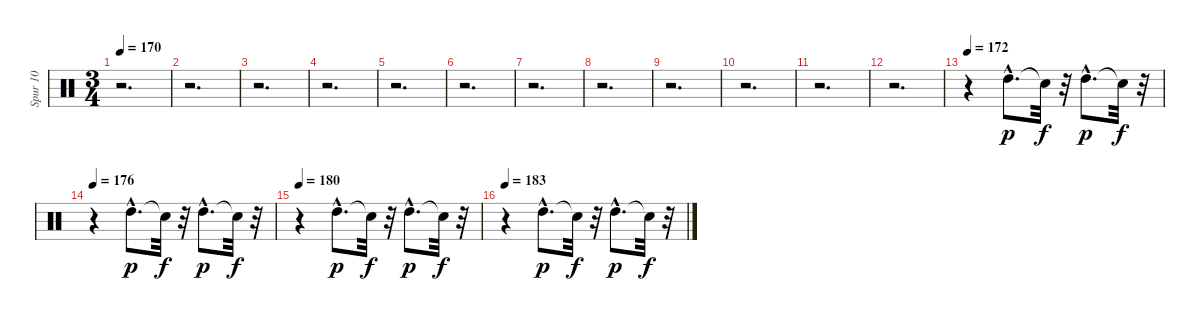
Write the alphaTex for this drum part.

\track ("Spur 10" "Spur 10") {instrument percussion}
\staff {score}
\articulation defaults
\ts (3 4)
\tempo 170
\clef neutral
\ks c
r.2{d dy f} |
r.2{d} |
r.2{d} |
r.2{d} |
r.2{d} |
r.2{d} |
r.2{d} |
r.2{d} |
r.2{d} |
r.2{d} |
r.2{d} |
r.2{d} |
\tempo 172
r.4 "High Tom (hit)"{hac}.8{d dy p} "Snare (hit)"{t}.32{dy f} r.32 "High Tom (hit)"{hac}.8{d dy p} "Snare (hit)"{t}.32{dy f} r.32 |
\tempo 176
r.4 "High Tom (hit)"{hac}.8{d dy p} "Snare (hit)"{t}.32{dy f} r.32 "High Tom (hit)"{hac}.8{d dy p} "Snare (hit)"{t}.32{dy f} r.32 |
\tempo 180
r.4 "High Tom (hit)"{hac}.8{d dy p} "Snare (hit)"{t}.32{dy f} r.32 "High Tom (hit)"{hac}.8{d dy p} "Snare (hit)"{t}.32{dy f} r.32 |
\tempo 183
r.4 "High Tom (hit)"{hac}.8{d dy p} "Snare (hit)"{t}.32{dy f} r.32 "High Tom (hit)"{hac}.8{d dy p} "Snare (hit)"{t}.32{dy f} r.32
